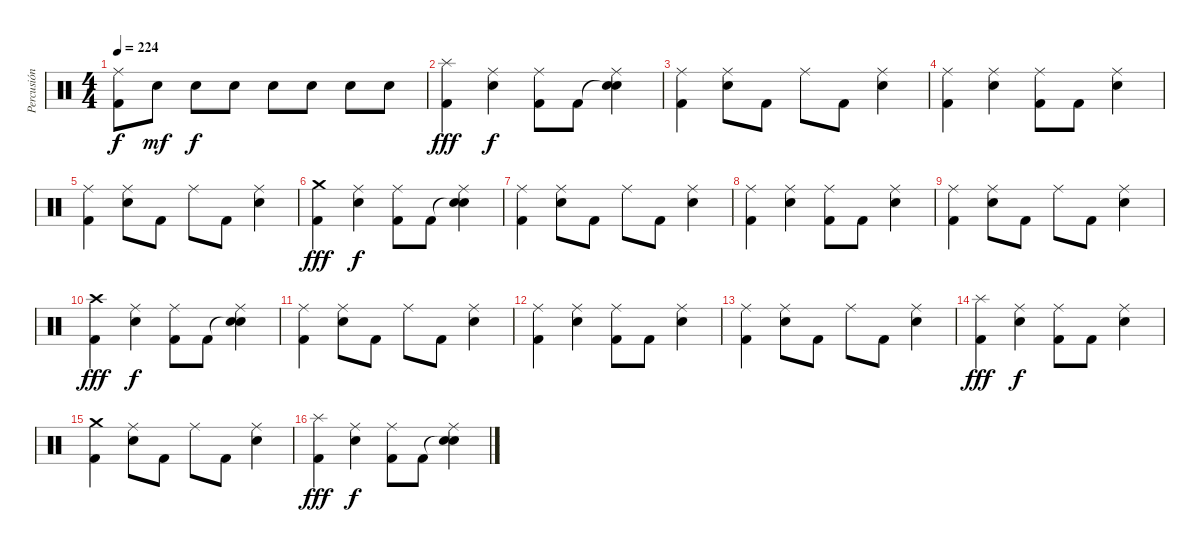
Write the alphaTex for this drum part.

\track ("Percusión" "Percusión") {instrument percussion}
\staff {score}
\articulation defaults
\ts (4 4)
\tempo 224
\clef neutral
\ks c
("Ride (middle)" "Kick (hit) 2").8{dy f} "Electric Snare (hit)".8{dy mf} "Electric Snare (hit)".8{dy f} "Electric Snare (hit)".8 "Electric Snare (hit)".8 "Electric Snare (hit)".8 "Electric Snare (hit)".8 "Electric Snare (hit)".8 |
("Splash (hit)" "Kick (hit) 2").4{dy fff} ("Ride (middle)" "Electric Snare (hit)").4{dy f} ("Ride (middle)" "Kick (hit) 2").8 "Kick (hit) 2".8 ("Snare (hit)"{t} "Ride (middle)" "Electric Snare (hit)").4 |
("Ride (middle)" "Kick (hit) 2").4 ("Ride (middle)" "Electric Snare (hit)").8 "Kick (hit) 2".8 "Ride (middle)".8 "Kick (hit) 2".8 ("Ride (middle)" "Electric Snare (hit)").4 |
("Ride (middle)" "Kick (hit) 2").4 ("Ride (middle)" "Electric Snare (hit)").4 ("Ride (middle)" "Kick (hit) 2").8 "Kick (hit) 2".8 ("Ride (middle)" "Electric Snare (hit)").4 |
("Ride (middle)" "Kick (hit) 2").4 ("Ride (middle)" "Electric Snare (hit)").8 "Kick (hit) 2".8 "Ride (middle)".8 "Kick (hit) 2".8 ("Ride (middle)" "Electric Snare (hit)").4 |
("Crash medium (hit)" "Kick (hit) 2").4{dy fff} ("Ride (middle)" "Electric Snare (hit)").4{dy f} ("Ride (middle)" "Kick (hit) 2").8 "Kick (hit) 2".8 ("Snare (hit)"{t} "Ride (middle)" "Electric Snare (hit)").4 |
("Ride (middle)" "Kick (hit) 2").4 ("Ride (middle)" "Electric Snare (hit)").8 "Kick (hit) 2".8 "Ride (middle)".8 "Kick (hit) 2".8 ("Ride (middle)" "Electric Snare (hit)").4 |
("Ride (middle)" "Kick (hit) 2").4 ("Ride (middle)" "Electric Snare (hit)").4 ("Ride (middle)" "Kick (hit) 2").8 "Kick (hit) 2".8 ("Ride (middle)" "Electric Snare (hit)").4 |
("Ride (middle)" "Kick (hit) 2").4 ("Ride (middle)" "Electric Snare (hit)").8 "Kick (hit) 2".8 "Ride (middle)".8 "Kick (hit) 2".8 ("Ride (middle)" "Electric Snare (hit)").4 |
("Crash high (hit)" "Kick (hit) 2").4{dy fff} ("Ride (middle)" "Electric Snare (hit)").4{dy f} ("Ride (middle)" "Kick (hit) 2").8 "Kick (hit) 2".8 ("Snare (hit)"{t} "Ride (middle)" "Electric Snare (hit)").4 |
("Ride (middle)" "Kick (hit) 2").4 ("Ride (middle)" "Electric Snare (hit)").8 "Kick (hit) 2".8 "Ride (middle)".8 "Kick (hit) 2".8 ("Ride (middle)" "Electric Snare (hit)").4 |
("Ride (middle)" "Kick (hit) 2").4 ("Ride (middle)" "Electric Snare (hit)").4 ("Ride (middle)" "Kick (hit) 2").8 "Kick (hit) 2".8 ("Ride (middle)" "Electric Snare (hit)").4 |
("Ride (middle)" "Kick (hit) 2").4 ("Ride (middle)" "Electric Snare (hit)").8 "Kick (hit) 2".8 "Ride (middle)".8 "Kick (hit) 2".8 ("Ride (middle)" "Electric Snare (hit)").4 |
("Splash (hit)" "Kick (hit) 2").4{dy fff} ("Ride (middle)" "Electric Snare (hit)").4{dy f} ("Ride (middle)" "Kick (hit) 2").8 "Kick (hit) 2".8 ("Ride (middle)" "Electric Snare (hit)").4 |
("Crash medium (hit)" "Kick (hit) 2").4 ("Ride (middle)" "Electric Snare (hit)").8 "Kick (hit) 2".8 "Ride (middle)".8 "Kick (hit) 2".8 ("Ride (middle)" "Electric Snare (hit)").4 |
("Splash (hit)" "Kick (hit) 2").4{dy fff} ("Ride (middle)" "Electric Snare (hit)").4{dy f} ("Ride (middle)" "Kick (hit) 2").8 "Kick (hit) 2".8 ("Snare (hit)"{t} "Ride (middle)" "Electric Snare (hit)").4
